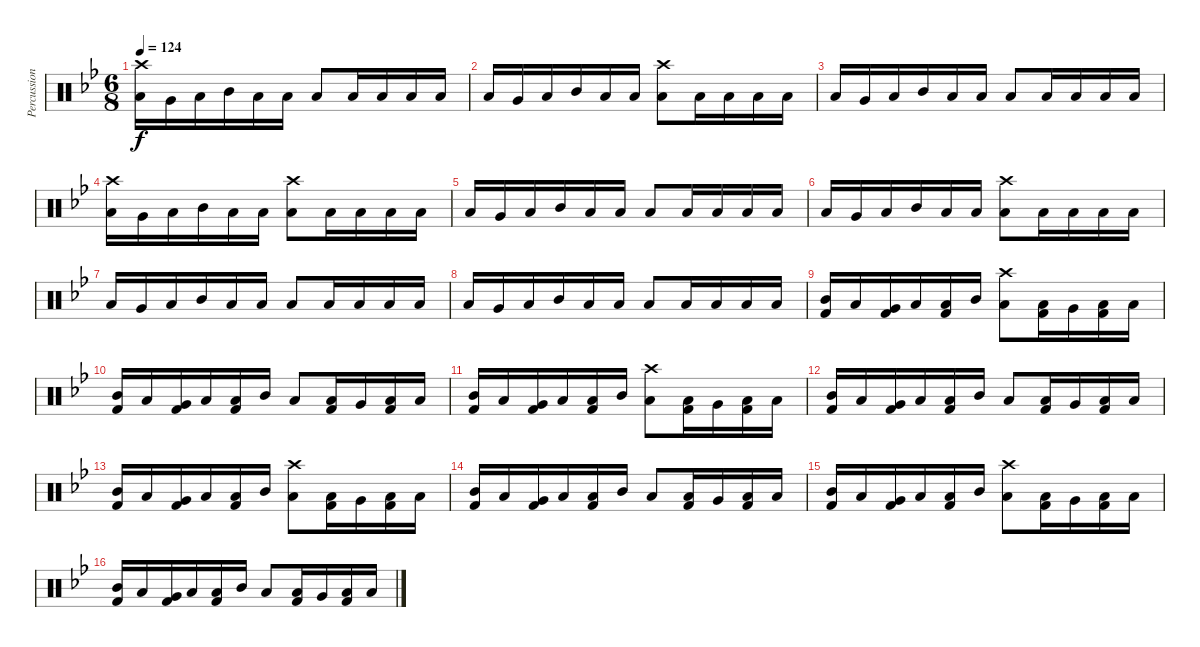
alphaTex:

\track ("Percussion" "Percussion") {instrument percussion}
\staff {score}
\articulation defaults
\ts (6 8)
\tempo 124
\clef neutral
\ks bb
("Low Tom (hit)" "Crash high (hit)").16{dy f} "Very Low Tom (hit)".16 "Low Floor Tom (hit)".16 "Mid Tom (hit)".16 "Low Tom (hit)".16 "Low Floor Tom (hit)".16 "Low Tom (hit)".8 "Low Tom (hit)".16 "Low Floor Tom (hit)".16 "Low Tom (hit)".16 "Low Floor Tom (hit)".16 |
"Low Tom (hit)".16 "Very Low Tom (hit)".16 "Low Floor Tom (hit)".16 "Mid Tom (hit)".16 "Low Tom (hit)".16 "Low Floor Tom (hit)".16 ("Low Tom (hit)" "Crash high (hit)").8 "Low Tom (hit)".16 "Low Floor Tom (hit)".16 "Low Tom (hit)".16 "Low Floor Tom (hit)".16 |
"Low Tom (hit)".16 "Very Low Tom (hit)".16 "Low Floor Tom (hit)".16 "Mid Tom (hit)".16 "Low Tom (hit)".16 "Low Floor Tom (hit)".16 "Low Tom (hit)".8 "Low Tom (hit)".16 "Low Floor Tom (hit)".16 "Low Tom (hit)".16 "Low Floor Tom (hit)".16 |
("Low Tom (hit)" "Crash high (hit)").16 "Very Low Tom (hit)".16 "Low Floor Tom (hit)".16 "Mid Tom (hit)".16 "Low Tom (hit)".16 "Low Floor Tom (hit)".16 ("Low Tom (hit)" "Crash high (hit)").8 "Low Tom (hit)".16 "Low Floor Tom (hit)".16 "Low Tom (hit)".16 "Low Floor Tom (hit)".16 |
"Low Tom (hit)".16 "Very Low Tom (hit)".16 "Low Floor Tom (hit)".16 "Mid Tom (hit)".16 "Low Tom (hit)".16 "Low Floor Tom (hit)".16 "Low Tom (hit)".8 "Low Tom (hit)".16 "Low Floor Tom (hit)".16 "Low Tom (hit)".16 "Low Floor Tom (hit)".16 |
"Low Tom (hit)".16 "Very Low Tom (hit)".16 "Low Floor Tom (hit)".16 "Mid Tom (hit)".16 "Low Tom (hit)".16 "Low Floor Tom (hit)".16 ("Low Tom (hit)" "Crash high (hit)").8 "Low Tom (hit)".16 "Low Floor Tom (hit)".16 "Low Tom (hit)".16 "Low Floor Tom (hit)".16 |
"Low Tom (hit)".16 "Very Low Tom (hit)".16 "Low Floor Tom (hit)".16 "Mid Tom (hit)".16 "Low Tom (hit)".16 "Low Floor Tom (hit)".16 "Low Tom (hit)".8 "Low Tom (hit)".16 "Low Floor Tom (hit)".16 "Low Tom (hit)".16 "Low Floor Tom (hit)".16 |
"Low Tom (hit)".16 "Very Low Tom (hit)".16 "Low Floor Tom (hit)".16 "Mid Tom (hit)".16 "Low Tom (hit)".16 "Low Floor Tom (hit)".16 "Low Tom (hit)".8 "Low Tom (hit)".16 "Low Floor Tom (hit)".16 "Low Tom (hit)".16 "Low Floor Tom (hit)".16 |
("Mid Tom (hit)" "Kick (hit) 2").16 "Low Tom (hit)".16 ("Very Low Tom (hit)" "Kick (hit) 2").16 "Low Floor Tom (hit)".16 ("Low Tom (hit)" "Kick (hit) 2").16 "Mid Tom (hit)".16 ("Low Tom (hit)" "Crash high (hit)").8 ("Low Tom (hit)" "Kick (hit) 2").16 "Very Low Tom (hit)".16 ("Low Tom (hit)" "Kick (hit) 2").16 "Low Floor Tom (hit)".16 |
("Mid Tom (hit)" "Kick (hit) 2").16 "Low Tom (hit)".16 ("Very Low Tom (hit)" "Kick (hit) 2").16 "Low Floor Tom (hit)".16 ("Low Tom (hit)" "Kick (hit) 2").16 "Mid Tom (hit)".16 "Low Tom (hit)".8 ("Low Tom (hit)" "Kick (hit) 2").16 "Very Low Tom (hit)".16 ("Low Tom (hit)" "Kick (hit) 2").16 "Low Floor Tom (hit)".16 |
("Mid Tom (hit)" "Kick (hit) 2").16 "Low Tom (hit)".16 ("Very Low Tom (hit)" "Kick (hit) 2").16 "Low Floor Tom (hit)".16 ("Low Tom (hit)" "Kick (hit) 2").16 "Mid Tom (hit)".16 ("Low Tom (hit)" "Crash high (hit)").8 ("Low Tom (hit)" "Kick (hit) 2").16 "Very Low Tom (hit)".16 ("Low Tom (hit)" "Kick (hit) 2").16 "Low Floor Tom (hit)".16 |
("Mid Tom (hit)" "Kick (hit) 2").16 "Low Tom (hit)".16 ("Very Low Tom (hit)" "Kick (hit) 2").16 "Low Floor Tom (hit)".16 ("Low Tom (hit)" "Kick (hit) 2").16 "Mid Tom (hit)".16 "Low Tom (hit)".8 ("Low Tom (hit)" "Kick (hit) 2").16 "Very Low Tom (hit)".16 ("Low Tom (hit)" "Kick (hit) 2").16 "Low Floor Tom (hit)".16 |
("Mid Tom (hit)" "Kick (hit) 2").16 "Low Tom (hit)".16 ("Very Low Tom (hit)" "Kick (hit) 2").16 "Low Floor Tom (hit)".16 ("Low Tom (hit)" "Kick (hit) 2").16 "Mid Tom (hit)".16 ("Low Tom (hit)" "Crash high (hit)").8 ("Low Tom (hit)" "Kick (hit) 2").16 "Very Low Tom (hit)".16 ("Low Tom (hit)" "Kick (hit) 2").16 "Low Floor Tom (hit)".16 |
("Mid Tom (hit)" "Kick (hit) 2").16 "Low Tom (hit)".16 ("Very Low Tom (hit)" "Kick (hit) 2").16 "Low Floor Tom (hit)".16 ("Low Tom (hit)" "Kick (hit) 2").16 "Mid Tom (hit)".16 "Low Tom (hit)".8 ("Low Tom (hit)" "Kick (hit) 2").16 "Very Low Tom (hit)".16 ("Low Tom (hit)" "Kick (hit) 2").16 "Low Floor Tom (hit)".16 |
("Mid Tom (hit)" "Kick (hit) 2").16 "Low Tom (hit)".16 ("Very Low Tom (hit)" "Kick (hit) 2").16 "Low Floor Tom (hit)".16 ("Low Tom (hit)" "Kick (hit) 2").16 "Mid Tom (hit)".16 ("Low Tom (hit)" "Crash high (hit)").8 ("Low Tom (hit)" "Kick (hit) 2").16 "Very Low Tom (hit)".16 ("Low Tom (hit)" "Kick (hit) 2").16 "Low Floor Tom (hit)".16 |
("Mid Tom (hit)" "Kick (hit) 2").16 "Low Tom (hit)".16 ("Very Low Tom (hit)" "Kick (hit) 2").16 "Low Floor Tom (hit)".16 ("Low Tom (hit)" "Kick (hit) 2").16 "Mid Tom (hit)".16 "Low Tom (hit)".8 ("Low Tom (hit)" "Kick (hit) 2").16 "Very Low Tom (hit)".16 ("Low Tom (hit)" "Kick (hit) 2").16 "Low Floor Tom (hit)".16
